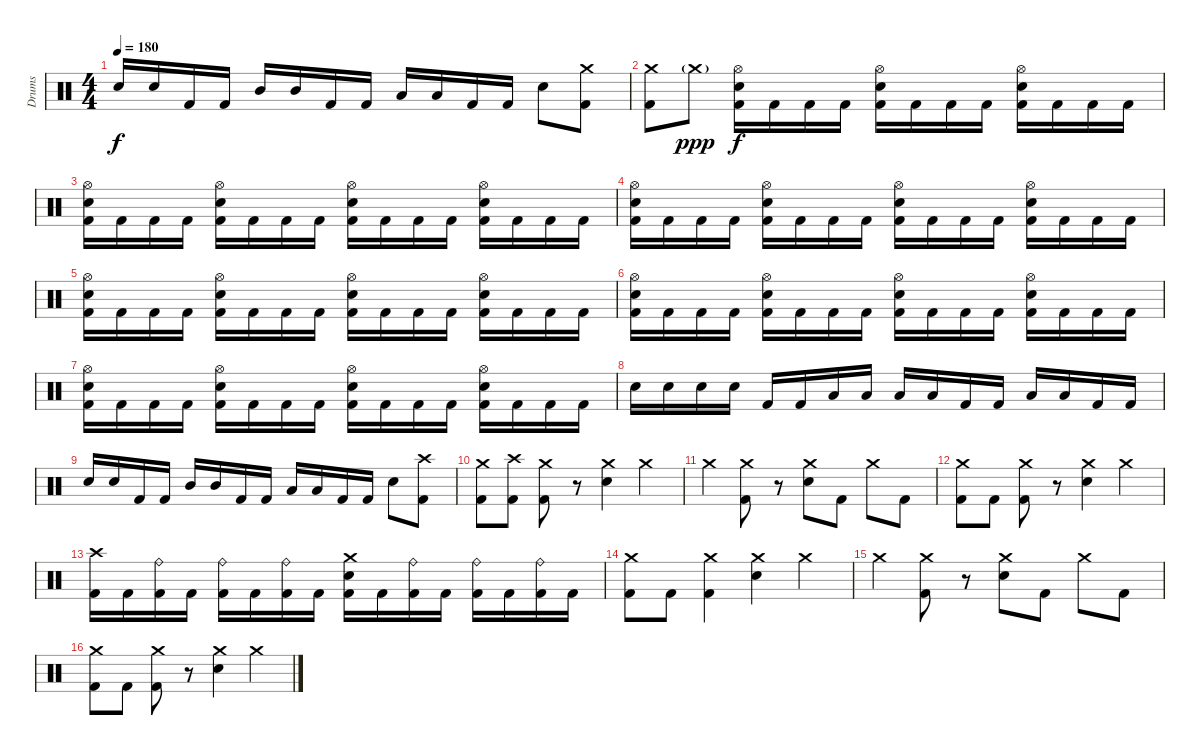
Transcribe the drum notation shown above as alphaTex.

\track ("Drums" "Drums") {instrument percussion}
\staff {score}
\articulation defaults
\ts (4 4)
\tempo 180
\clef neutral
\ks c "Electric Snare (hit)".16{dy f} "Electric Snare (hit)".16 "Kick (hit) 2".16 "Kick (hit) 2".16 "Mid Tom (hit)".16 "Mid Tom (hit)".16 "Kick (hit) 2".16 "Kick (hit) 2".16 "Low Tom (hit)".16 "Low Tom (hit)".16 "Kick (hit) 2".16 "Kick (hit) 2".16 "Electric Snare (hit)".8
("Crash medium (hit)" "Kick (hit) 2").8 |
("Crash medium (hit)" "Kick (hit) 2").8 "Crash medium (hit)"{g}.8{dy ppp volume 0} ("Hi-Hat (open)" "Electric Snare (hit)" "Kick (hit) 2").16{dy f volume 16} "Kick (hit) 2".16 "Kick (hit) 2".16 "Kick (hit) 2".16 ("Hi-Hat (open)" "Electric Snare (hit)" "Kick (hit) 2").16 "Kick (hit) 2".16 "Kick (hit) 2".16 "Kick (hit) 2".16 ("Hi-Hat (open)" "Electric Snare (hit)" "Kick (hit) 2").16 "Kick (hit) 2".16 "Kick (hit) 2".16 "Kick (hit) 2".16 |
("Hi-Hat (open)" "Electric Snare (hit)" "Kick (hit) 2").16 "Kick (hit) 2".16 "Kick (hit) 2".16 "Kick (hit) 2".16 ("Hi-Hat (open)" "Electric Snare (hit)" "Kick (hit) 2").16 "Kick (hit) 2".16 "Kick (hit) 2".16 "Kick (hit) 2".16 ("Hi-Hat (open)" "Electric Snare (hit)" "Kick (hit) 2").16 "Kick (hit) 2".16 "Kick (hit) 2".16 "Kick (hit) 2".16 ("Hi-Hat (open)" "Electric Snare (hit)" "Kick (hit) 2").16 "Kick (hit) 2".16 "Kick (hit) 2".16 "Kick (hit) 2".16 |
("Hi-Hat (open)" "Electric Snare (hit)" "Kick (hit) 2").16 "Kick (hit) 2".16 "Kick (hit) 2".16 "Kick (hit) 2".16 ("Hi-Hat (open)" "Electric Snare (hit)" "Kick (hit) 2").16 "Kick (hit) 2".16 "Kick (hit) 2".16 "Kick (hit) 2".16 ("Hi-Hat (open)" "Electric Snare (hit)" "Kick (hit) 2").16 "Kick (hit) 2".16 "Kick (hit) 2".16 "Kick (hit) 2".16 ("Hi-Hat (open)" "Electric Snare (hit)" "Kick (hit) 2").16 "Kick (hit) 2".16 "Kick (hit) 2".16 "Kick (hit) 2".16 |
("Hi-Hat (open)" "Electric Snare (hit)" "Kick (hit) 2").16 "Kick (hit) 2".16 "Kick (hit) 2".16 "Kick (hit) 2".16 ("Hi-Hat (open)" "Electric Snare (hit)" "Kick (hit) 2").16 "Kick (hit) 2".16 "Kick (hit) 2".16 "Kick (hit) 2".16 ("Hi-Hat (open)" "Electric Snare (hit)" "Kick (hit) 2").16 "Kick (hit) 2".16 "Kick (hit) 2".16 "Kick (hit) 2".16 ("Hi-Hat (open)" "Electric Snare (hit)" "Kick (hit) 2").16 "Kick (hit) 2".16 "Kick (hit) 2".16 "Kick (hit) 2".16 |
("Hi-Hat (open)" "Electric Snare (hit)" "Kick (hit) 2").16 "Kick (hit) 2".16 "Kick (hit) 2".16 "Kick (hit) 2".16 ("Hi-Hat (open)" "Electric Snare (hit)" "Kick (hit) 2").16 "Kick (hit) 2".16 "Kick (hit) 2".16 "Kick (hit) 2".16 ("Hi-Hat (open)" "Electric Snare (hit)" "Kick (hit) 2").16 "Kick (hit) 2".16 "Kick (hit) 2".16 "Kick (hit) 2".16 ("Hi-Hat (open)" "Electric Snare (hit)" "Kick (hit) 2").16 "Kick (hit) 2".16 "Kick (hit) 2".16 "Kick (hit) 2".16 |
("Hi-Hat (open)" "Electric Snare (hit)" "Kick (hit) 2").16 "Kick (hit) 2".16 "Kick (hit) 2".16 "Kick (hit) 2".16 ("Hi-Hat (open)" "Electric Snare (hit)" "Kick (hit) 2").16 "Kick (hit) 2".16 "Kick (hit) 2".16 "Kick (hit) 2".16 ("Hi-Hat (open)" "Electric Snare (hit)" "Kick (hit) 2").16 "Kick (hit) 2".16 "Kick (hit) 2".16 "Kick (hit) 2".16 ("Hi-Hat (open)" "Electric Snare (hit)" "Kick (hit) 2").16 "Kick (hit) 2".16 "Kick (hit) 2".16 "Kick (hit) 2".16 |
"Electric Snare (hit)".16 "Electric Snare (hit)".16 "Electric Snare (hit)".16 "Electric Snare (hit)".16 "Kick (hit) 2".16 "Kick (hit) 2".16 "Low Tom (hit)".16 "Low Tom (hit)".16 "Low Tom (hit)".16 "Low Tom (hit)".16 "Kick (hit) 2".16 "Kick (hit) 2".16 "Low Tom (hit)".16 "Low Tom (hit)".16 "Kick (hit) 2".16 "Kick (hit) 2".16 |
"Electric Snare (hit)".16 "Electric Snare (hit)".16 "Kick (hit) 2".16 "Kick (hit) 2".16 "Mid Tom (hit)".16 "Mid Tom (hit)".16 "Kick (hit) 2".16 "Kick (hit) 2".16 "Low Tom (hit)".16 "Low Tom (hit)".16 "Kick (hit) 2".16 "Kick (hit) 2".16 "Electric Snare (hit)".8 ("Crash high (hit)" "Kick (hit) 2").8 |
("Crash medium (hit)" "Kick (hit) 2").8 ("Crash high (hit)" "Kick (hit) 2").8 ("Crash medium (hit)" "Kick (hit) 2").8 r.8 ("Crash medium (hit)" "Electric Snare (hit)").4 "Crash medium (hit)".4 |
"Crash medium (hit)".4 ("Crash medium (hit)" "Kick (hit) 2").8 r.8 ("Crash medium (hit)" "Electric Snare (hit)").8 "Kick (hit) 2".8 "Crash medium (hit)".8 "Kick (hit) 2".8 |
("Crash medium (hit)" "Kick (hit) 2").8 "Kick (hit) 2".8 ("Crash medium (hit)" "Kick (hit) 2").8 r.8 ("Crash medium (hit)" "Electric Snare (hit)").4 "Crash medium (hit)".4 |
("Crash high (hit)" "Kick (hit) 2").16 "Kick (hit) 2".16 ("Ride (bell)" "Kick (hit) 2").16 "Kick (hit) 2".16 ("Ride (bell)" "Kick (hit) 2").16 "Kick (hit) 2".16 ("Ride (bell)" "Kick (hit) 2").16 "Kick (hit) 2".16 ("Crash medium (hit)" "Electric Snare (hit)" "Kick (hit) 2").16 "Kick (hit) 2".16 ("Ride (bell)" "Kick (hit) 2").16 "Kick (hit) 2".16 ("Ride (bell)" "Kick (hit) 2").16 "Kick (hit) 2".16 ("Ride (bell)" "Kick (hit) 2").16 "Kick (hit) 2".16 |
("Crash medium (hit)" "Kick (hit) 2").8 "Kick (hit) 2".8 ("Crash medium (hit)" "Kick (hit) 2").4 ("Crash medium (hit)" "Electric Snare (hit)").4 "Crash medium (hit)".4 |
"Crash medium (hit)".4 ("Crash medium (hit)" "Kick (hit) 2").8 r.8 ("Crash medium (hit)" "Electric Snare (hit)").8 "Kick (hit) 2".8 "Crash medium (hit)".8 "Kick (hit) 2".8 |
("Crash medium (hit)" "Kick (hit) 2").8 "Kick (hit) 2".8 ("Crash medium (hit)" "Kick (hit) 2").8 r.8 ("Crash medium (hit)" "Electric Snare (hit)").4 "Crash medium (hit)".4
